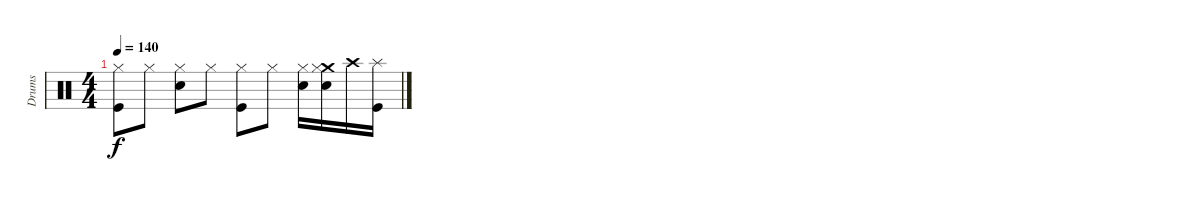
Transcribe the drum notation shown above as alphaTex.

\track ("Drums" "Drums") {instrument percussion}
\staff {score}
\articulation defaults
\ts (4 4)
\tempo 140
\clef neutral
\ks c
("Hi-Hat (closed)" "Kick (hit)").8{dy f} "Hi-Hat (closed)".8 ("Hi-Hat (closed)" "Electric Snare (hit)").8 "Hi-Hat (closed)".8 ("Hi-Hat (closed)" "Kick (hit)").8 "Hi-Hat (closed)".8 ("Hi-Hat (closed)" "Electric Snare (hit)").16 ("Crash medium (hit)" "Hi-Hat (closed)" "Electric Snare (hit)").16 "Crash high (hit)".16 ("Splash (hit)" "Kick (hit)").16
